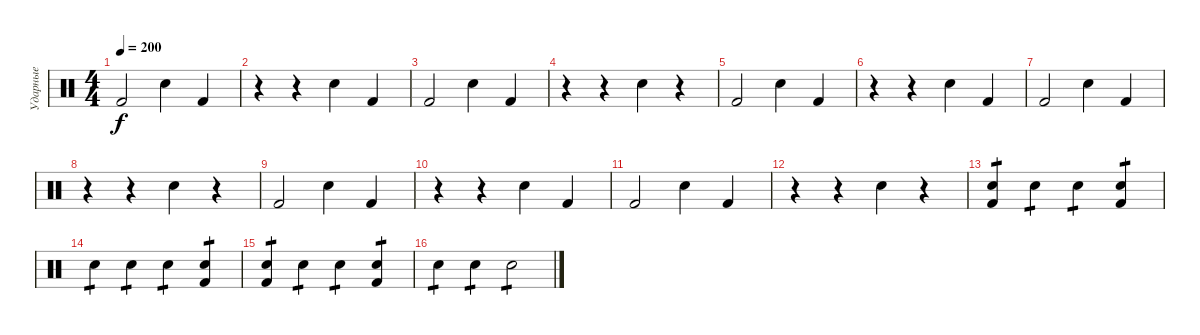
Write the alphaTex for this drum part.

\track ("Ударные" "Ударные") {instrument percussion}
\staff {score}
\articulation defaults
\ts (4 4)
\tempo 200
\clef neutral
\ks c "Kick (hit) 2".2{dy f} "Snare (hit) 2".4 "Kick (hit) 2".4
|
r.4 r.4 "Snare (hit) 2".4 "Kick (hit) 2".4 |
"Kick (hit) 2".2 "Snare (hit) 2".4 "Kick (hit) 2".4 |
r.4 r.4 "Snare (hit) 2".4 r.4 |
"Kick (hit) 2".2 "Snare (hit) 2".4 "Kick (hit) 2".4 |
r.4 r.4 "Snare (hit) 2".4 "Kick (hit) 2".4 |
"Kick (hit) 2".2 "Snare (hit) 2".4 "Kick (hit) 2".4 |
r.4 r.4 "Snare (hit) 2".4 r.4 |
"Kick (hit) 2".2 "Snare (hit) 2".4 "Kick (hit) 2".4 |
r.4 r.4 "Snare (hit) 2".4 "Kick (hit) 2".4 |
"Kick (hit) 2".2 "Snare (hit) 2".4 "Kick (hit) 2".4 |
r.4 r.4 "Snare (hit) 2".4 r.4 |
("Kick (hit) 2" "Snare (hit) 2").4{tp 1} "Snare (hit) 2".4{tp 1} "Snare (hit) 2".4{tp 1} ("Kick (hit) 2" "Snare (hit) 2").4{tp 1} |
"Snare (hit) 2".4{tp 1} "Snare (hit) 2".4{tp 1} "Snare (hit) 2".4{tp 1} ("Kick (hit) 2" "Snare (hit) 2").4{tp 1} |
("Kick (hit) 2" "Snare (hit) 2").4{tp 1} "Snare (hit) 2".4{tp 1} "Snare (hit) 2".4{tp 1} ("Kick (hit) 2" "Snare (hit) 2").4{tp 1} |
"Snare (hit) 2".4{tp 1} "Snare (hit) 2".4{tp 1} "Snare (hit) 2".2{tp 1}
